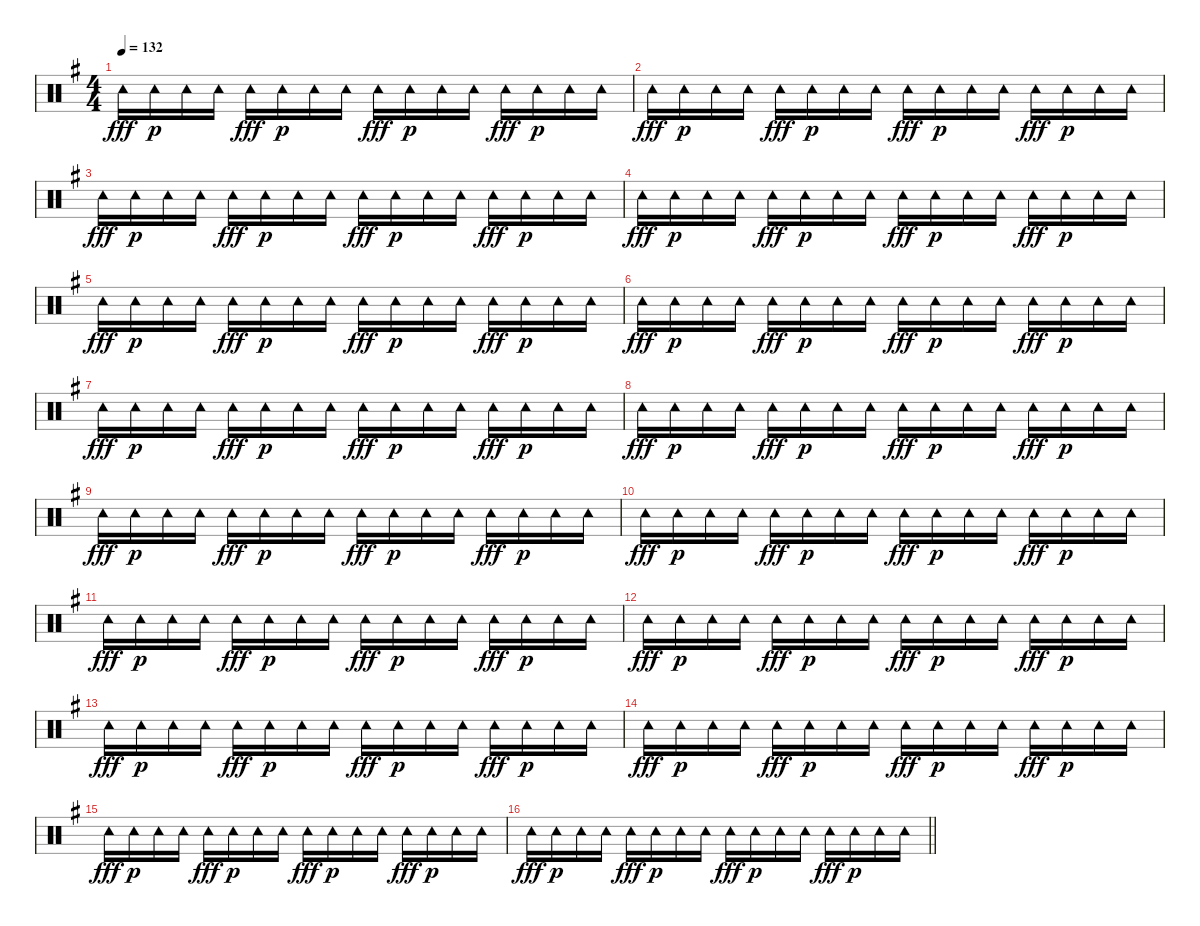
\track "" {instrument percussion}
\staff {score}
\articulation defaults
\ts (4 4)
\tempo 132
\clef neutral
\ks eminor "Tambourine (hit)".16{dy fff} "Tambourine (hit)".16{dy p} "Tambourine (hit)".16 "Tambourine (hit)".16 "Tambourine (hit)".16{dy fff} "Tambourine (hit)".16{dy p} "Tambourine (hit)".16 "Tambourine (hit)".16 "Tambourine (hit)".16{dy fff} "Tambourine (hit)".16{dy p} "Tambourine (hit)".16 "Tambourine (hit)".16 "Tambourine (hit)".16{dy fff} "Tambourine (hit)".16{dy p} "Tambourine (hit)".16 "Tambourine (hit)".16
|
"Tambourine (hit)".16{dy fff} "Tambourine (hit)".16{dy p} "Tambourine (hit)".16 "Tambourine (hit)".16 "Tambourine (hit)".16{dy fff} "Tambourine (hit)".16{dy p} "Tambourine (hit)".16 "Tambourine (hit)".16 "Tambourine (hit)".16{dy fff} "Tambourine (hit)".16{dy p} "Tambourine (hit)".16 "Tambourine (hit)".16 "Tambourine (hit)".16{dy fff} "Tambourine (hit)".16{dy p} "Tambourine (hit)".16 "Tambourine (hit)".16 |
"Tambourine (hit)".16{dy fff} "Tambourine (hit)".16{dy p} "Tambourine (hit)".16 "Tambourine (hit)".16 "Tambourine (hit)".16{dy fff} "Tambourine (hit)".16{dy p} "Tambourine (hit)".16 "Tambourine (hit)".16 "Tambourine (hit)".16{dy fff} "Tambourine (hit)".16{dy p} "Tambourine (hit)".16 "Tambourine (hit)".16 "Tambourine (hit)".16{dy fff} "Tambourine (hit)".16{dy p} "Tambourine (hit)".16 "Tambourine (hit)".16 |
"Tambourine (hit)".16{dy fff} "Tambourine (hit)".16{dy p} "Tambourine (hit)".16 "Tambourine (hit)".16 "Tambourine (hit)".16{dy fff} "Tambourine (hit)".16{dy p} "Tambourine (hit)".16 "Tambourine (hit)".16 "Tambourine (hit)".16{dy fff} "Tambourine (hit)".16{dy p} "Tambourine (hit)".16 "Tambourine (hit)".16 "Tambourine (hit)".16{dy fff} "Tambourine (hit)".16{dy p} "Tambourine (hit)".16 "Tambourine (hit)".16 |
"Tambourine (hit)".16{dy fff} "Tambourine (hit)".16{dy p} "Tambourine (hit)".16 "Tambourine (hit)".16 "Tambourine (hit)".16{dy fff} "Tambourine (hit)".16{dy p} "Tambourine (hit)".16 "Tambourine (hit)".16 "Tambourine (hit)".16{dy fff} "Tambourine (hit)".16{dy p} "Tambourine (hit)".16 "Tambourine (hit)".16 "Tambourine (hit)".16{dy fff} "Tambourine (hit)".16{dy p} "Tambourine (hit)".16 "Tambourine (hit)".16 |
"Tambourine (hit)".16{dy fff} "Tambourine (hit)".16{dy p} "Tambourine (hit)".16 "Tambourine (hit)".16 "Tambourine (hit)".16{dy fff} "Tambourine (hit)".16{dy p} "Tambourine (hit)".16 "Tambourine (hit)".16 "Tambourine (hit)".16{dy fff} "Tambourine (hit)".16{dy p} "Tambourine (hit)".16 "Tambourine (hit)".16 "Tambourine (hit)".16{dy fff} "Tambourine (hit)".16{dy p} "Tambourine (hit)".16 "Tambourine (hit)".16 |
"Tambourine (hit)".16{dy fff} "Tambourine (hit)".16{dy p} "Tambourine (hit)".16 "Tambourine (hit)".16 "Tambourine (hit)".16{dy fff} "Tambourine (hit)".16{dy p} "Tambourine (hit)".16 "Tambourine (hit)".16 "Tambourine (hit)".16{dy fff} "Tambourine (hit)".16{dy p} "Tambourine (hit)".16 "Tambourine (hit)".16 "Tambourine (hit)".16{dy fff} "Tambourine (hit)".16{dy p} "Tambourine (hit)".16 "Tambourine (hit)".16 |
"Tambourine (hit)".16{dy fff} "Tambourine (hit)".16{dy p} "Tambourine (hit)".16 "Tambourine (hit)".16 "Tambourine (hit)".16{dy fff} "Tambourine (hit)".16{dy p} "Tambourine (hit)".16 "Tambourine (hit)".16 "Tambourine (hit)".16{dy fff} "Tambourine (hit)".16{dy p} "Tambourine (hit)".16 "Tambourine (hit)".16 "Tambourine (hit)".16{dy fff} "Tambourine (hit)".16{dy p} "Tambourine (hit)".16 "Tambourine (hit)".16 |
"Tambourine (hit)".16{dy fff} "Tambourine (hit)".16{dy p} "Tambourine (hit)".16 "Tambourine (hit)".16 "Tambourine (hit)".16{dy fff} "Tambourine (hit)".16{dy p} "Tambourine (hit)".16 "Tambourine (hit)".16 "Tambourine (hit)".16{dy fff} "Tambourine (hit)".16{dy p} "Tambourine (hit)".16 "Tambourine (hit)".16 "Tambourine (hit)".16{dy fff} "Tambourine (hit)".16{dy p} "Tambourine (hit)".16 "Tambourine (hit)".16 |
"Tambourine (hit)".16{dy fff} "Tambourine (hit)".16{dy p} "Tambourine (hit)".16 "Tambourine (hit)".16 "Tambourine (hit)".16{dy fff} "Tambourine (hit)".16{dy p} "Tambourine (hit)".16 "Tambourine (hit)".16 "Tambourine (hit)".16{dy fff} "Tambourine (hit)".16{dy p} "Tambourine (hit)".16 "Tambourine (hit)".16 "Tambourine (hit)".16{dy fff} "Tambourine (hit)".16{dy p} "Tambourine (hit)".16 "Tambourine (hit)".16 |
"Tambourine (hit)".16{dy fff} "Tambourine (hit)".16{dy p} "Tambourine (hit)".16 "Tambourine (hit)".16 "Tambourine (hit)".16{dy fff} "Tambourine (hit)".16{dy p} "Tambourine (hit)".16 "Tambourine (hit)".16 "Tambourine (hit)".16{dy fff} "Tambourine (hit)".16{dy p} "Tambourine (hit)".16 "Tambourine (hit)".16 "Tambourine (hit)".16{dy fff} "Tambourine (hit)".16{dy p} "Tambourine (hit)".16 "Tambourine (hit)".16 |
"Tambourine (hit)".16{dy fff} "Tambourine (hit)".16{dy p} "Tambourine (hit)".16 "Tambourine (hit)".16 "Tambourine (hit)".16{dy fff} "Tambourine (hit)".16{dy p} "Tambourine (hit)".16 "Tambourine (hit)".16 "Tambourine (hit)".16{dy fff} "Tambourine (hit)".16{dy p} "Tambourine (hit)".16 "Tambourine (hit)".16 "Tambourine (hit)".16{dy fff} "Tambourine (hit)".16{dy p} "Tambourine (hit)".16 "Tambourine (hit)".16 |
"Tambourine (hit)".16{dy fff} "Tambourine (hit)".16{dy p} "Tambourine (hit)".16 "Tambourine (hit)".16 "Tambourine (hit)".16{dy fff} "Tambourine (hit)".16{dy p} "Tambourine (hit)".16 "Tambourine (hit)".16 "Tambourine (hit)".16{dy fff} "Tambourine (hit)".16{dy p} "Tambourine (hit)".16 "Tambourine (hit)".16 "Tambourine (hit)".16{dy fff} "Tambourine (hit)".16{dy p} "Tambourine (hit)".16 "Tambourine (hit)".16 |
"Tambourine (hit)".16{dy fff} "Tambourine (hit)".16{dy p} "Tambourine (hit)".16 "Tambourine (hit)".16 "Tambourine (hit)".16{dy fff} "Tambourine (hit)".16{dy p} "Tambourine (hit)".16 "Tambourine (hit)".16 "Tambourine (hit)".16{dy fff} "Tambourine (hit)".16{dy p} "Tambourine (hit)".16 "Tambourine (hit)".16 "Tambourine (hit)".16{dy fff} "Tambourine (hit)".16{dy p} "Tambourine (hit)".16 "Tambourine (hit)".16 |
"Tambourine (hit)".16{dy fff} "Tambourine (hit)".16{dy p} "Tambourine (hit)".16 "Tambourine (hit)".16 "Tambourine (hit)".16{dy fff} "Tambourine (hit)".16{dy p} "Tambourine (hit)".16 "Tambourine (hit)".16 "Tambourine (hit)".16{dy fff} "Tambourine (hit)".16{dy p} "Tambourine (hit)".16 "Tambourine (hit)".16 "Tambourine (hit)".16{dy fff} "Tambourine (hit)".16{dy p} "Tambourine (hit)".16 "Tambourine (hit)".16 |
\barLineRight lightlight "Tambourine (hit)".16{dy fff} "Tambourine (hit)".16{dy p} "Tambourine (hit)".16 "Tambourine (hit)".16 "Tambourine (hit)".16{dy fff} "Tambourine (hit)".16{dy p} "Tambourine (hit)".16 "Tambourine (hit)".16 "Tambourine (hit)".16{dy fff} "Tambourine (hit)".16{dy p} "Tambourine (hit)".16 "Tambourine (hit)".16 "Tambourine (hit)".16{dy fff} "Tambourine (hit)".16{dy p} "Tambourine (hit)".16 "Tambourine (hit)".16
